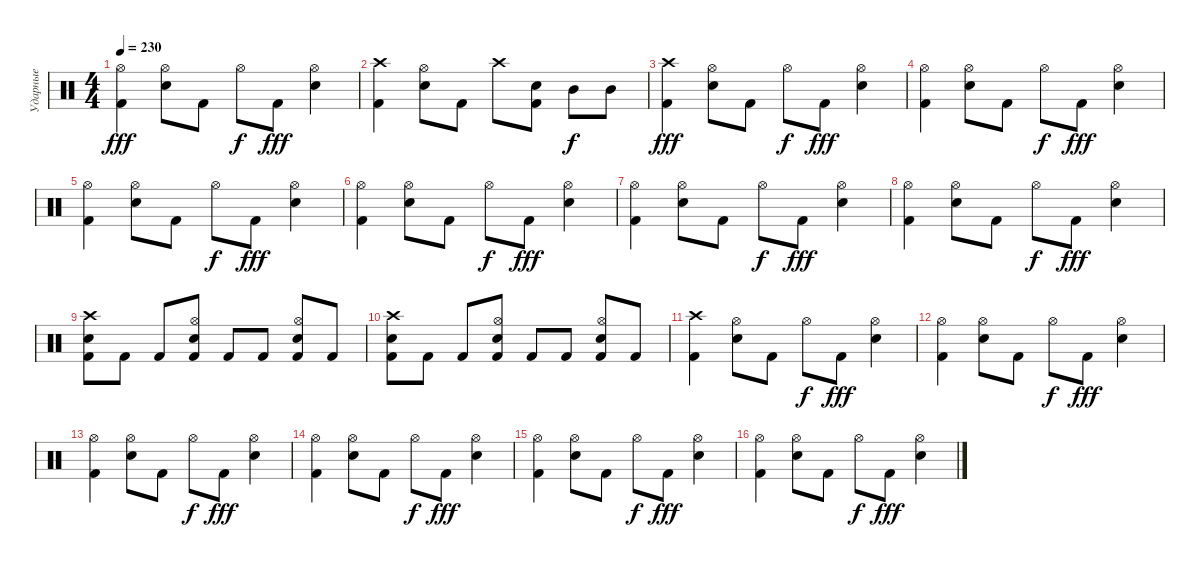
\track ("Ударные" "Ударные") {instrument percussion}
\staff {score}
\articulation defaults
\ts (4 4)
\tempo 230
\clef neutral
\ks c
("Kick (hit) 2" "Hi-Hat (open)").4{dy fff} ("Snare (hit) 2" "Hi-Hat (open)").8 "Kick (hit) 2".8 "Hi-Hat (open)".8{dy f} "Kick (hit) 2".8{dy fff} ("Snare (hit) 2" "Hi-Hat (open)").4 |
("Kick (hit) 2" "Crash high (hit)").4 ("Snare (hit) 2" "Hi-Hat (open)").8 "Kick (hit) 2".8 "Crash high (hit)".8 ("Kick (hit) 2" "Snare (hit) 2").8 "Mid Tom (hit)".8{dy f} "Mid Tom (hit)".8 |
("Kick (hit) 2" "Crash high (hit)").4{dy fff} ("Snare (hit) 2" "Hi-Hat (open)").8 "Kick (hit) 2".8 "Hi-Hat (open)".8{dy f} "Kick (hit) 2".8{dy fff} ("Snare (hit) 2" "Hi-Hat (open)").4 |
("Kick (hit) 2" "Hi-Hat (open)").4 ("Snare (hit) 2" "Hi-Hat (open)").8 "Kick (hit) 2".8 "Hi-Hat (open)".8{dy f} "Kick (hit) 2".8{dy fff} ("Snare (hit) 2" "Hi-Hat (open)").4 |
("Kick (hit) 2" "Hi-Hat (open)").4 ("Snare (hit) 2" "Hi-Hat (open)").8 "Kick (hit) 2".8 "Hi-Hat (open)".8{dy f} "Kick (hit) 2".8{dy fff} ("Snare (hit) 2" "Hi-Hat (open)").4 |
("Kick (hit) 2" "Hi-Hat (open)").4 ("Snare (hit) 2" "Hi-Hat (open)").8 "Kick (hit) 2".8 "Hi-Hat (open)".8{dy f} "Kick (hit) 2".8{dy fff} ("Snare (hit) 2" "Hi-Hat (open)").4 |
("Kick (hit) 2" "Hi-Hat (open)").4 ("Snare (hit) 2" "Hi-Hat (open)").8 "Kick (hit) 2".8 "Hi-Hat (open)".8{dy f} "Kick (hit) 2".8{dy fff} ("Snare (hit) 2" "Hi-Hat (open)").4 |
("Kick (hit) 2" "Hi-Hat (open)").4 ("Snare (hit) 2" "Hi-Hat (open)").8 "Kick (hit) 2".8 "Hi-Hat (open)".8{dy f} "Kick (hit) 2".8{dy fff} ("Snare (hit) 2" "Hi-Hat (open)").4 |
("Kick (hit) 2" "Snare (hit) 2" "Crash high (hit)").8 "Kick (hit) 2".8 "Kick (hit) 2".8 ("Kick (hit) 2" "Snare (hit) 2" "Hi-Hat (open)").8 "Kick (hit) 2".8 "Kick (hit) 2".8 ("Kick (hit) 2" "Snare (hit) 2" "Hi-Hat (open)").8 "Kick (hit) 2".8 |
("Kick (hit) 2" "Snare (hit) 2" "Crash high (hit)").8 "Kick (hit) 2".8 "Kick (hit) 2".8 ("Kick (hit) 2" "Snare (hit) 2" "Hi-Hat (open)").8 "Kick (hit) 2".8 "Kick (hit) 2".8 ("Kick (hit) 2" "Snare (hit) 2" "Hi-Hat (open)").8 "Kick (hit) 2".8 |
("Kick (hit) 2" "Crash high (hit)").4 ("Snare (hit) 2" "Hi-Hat (open)").8 "Kick (hit) 2".8 "Hi-Hat (open)".8{dy f} "Kick (hit) 2".8{dy fff} ("Snare (hit) 2" "Hi-Hat (open)").4 |
("Kick (hit) 2" "Hi-Hat (open)").4 ("Snare (hit) 2" "Hi-Hat (open)").8 "Kick (hit) 2".8 "Hi-Hat (open)".8{dy f} "Kick (hit) 2".8{dy fff} ("Snare (hit) 2" "Hi-Hat (open)").4 |
("Kick (hit) 2" "Hi-Hat (open)").4 ("Snare (hit) 2" "Hi-Hat (open)").8 "Kick (hit) 2".8 "Hi-Hat (open)".8{dy f} "Kick (hit) 2".8{dy fff} ("Snare (hit) 2" "Hi-Hat (open)").4 |
("Kick (hit) 2" "Hi-Hat (open)").4 ("Snare (hit) 2" "Hi-Hat (open)").8 "Kick (hit) 2".8 "Hi-Hat (open)".8{dy f} "Kick (hit) 2".8{dy fff} ("Snare (hit) 2" "Hi-Hat (open)").4 |
("Kick (hit) 2" "Hi-Hat (open)").4 ("Snare (hit) 2" "Hi-Hat (open)").8 "Kick (hit) 2".8 "Hi-Hat (open)".8{dy f} "Kick (hit) 2".8{dy fff} ("Snare (hit) 2" "Hi-Hat (open)").4 |
("Kick (hit) 2" "Hi-Hat (open)").4 ("Snare (hit) 2" "Hi-Hat (open)").8 "Kick (hit) 2".8 "Hi-Hat (open)".8{dy f} "Kick (hit) 2".8{dy fff} ("Snare (hit) 2" "Hi-Hat (open)").4
